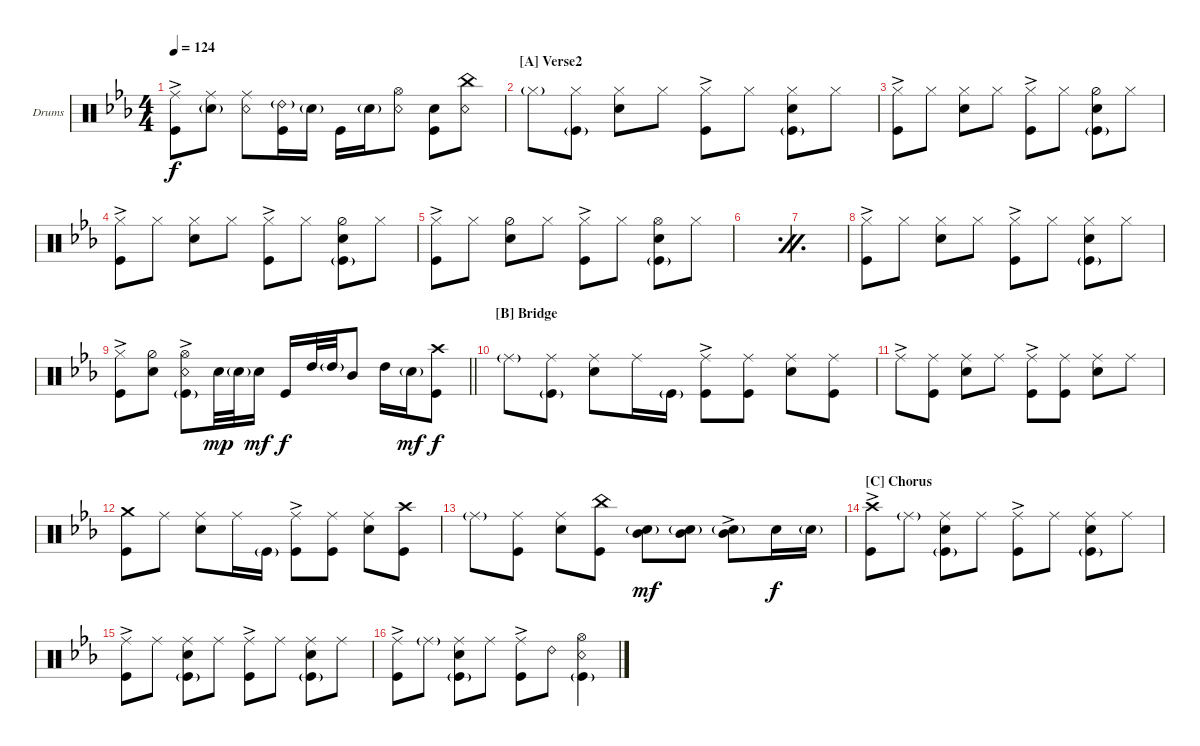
\bracketExtendMode groupsimilarinstruments
\firstSystemTrackNameOrientation horizontal
\otherSystemsTrackNameOrientation horizontal
\track ("Drumkit" "Drums") {instrument percussion}
\staff {score}
\articulation defaults
\ts (4 4)
\tempo 124
\clef neutral
\ks cminor
("Kick (hit)" "Ride (middle)"{ac}).8{dy f} ("Ride (middle)" "Snare (hit) 2"{g}).8 ("Snare (rim shot)" "Ride (middle)").8 ("Ride (bell) 2"{g} "Kick (hit)").16 "Snare (hit) 2"{g}.16 "Kick (hit)".16 "Snare (hit) 2"{g}.16 ("Snare (rim shot)" "Hi-Hat (open)").8 ("Snare (hit) 2" "Kick (hit)").8 ("China (hit)" "Snare (rim shot)").8 |
\section ("A" "Verse2")
"Hi-Hat (closed)"{g}.8 ("Hi-Hat (closed)" "Kick (hit)"{g}).8 ("Snare (hit) 2" "Hi-Hat (closed)").8 "Hi-Hat (closed)".8 ("Kick (hit)" "Hi-Hat (closed)"{ac}).8 "Hi-Hat (closed)".8 ("Snare (hit) 2" "Kick (hit)"{g} "Hi-Hat (closed)").8 "Hi-Hat (closed)".8 |
("Kick (hit)" "Hi-Hat (closed)"{ac}).8 "Hi-Hat (closed)".8 ("Snare (hit) 2" "Hi-Hat (closed)").8 "Hi-Hat (closed)".8 ("Kick (hit)" "Hi-Hat (closed)"{ac}).8 "Hi-Hat (closed)".8 ("Snare (hit) 2" "Kick (hit)"{g} "Hi-Hat (half)").8 "Hi-Hat (closed)".8 |
("Kick (hit)" "Hi-Hat (closed)"{ac}).8 "Hi-Hat (closed)".8 ("Snare (hit) 2" "Hi-Hat (closed)").8 "Hi-Hat (closed)".8 ("Kick (hit)" "Hi-Hat (closed)"{ac}).8 "Hi-Hat (closed)".8 ("Snare (hit) 2" "Kick (hit)"{g} "Hi-Hat (half)").8 "Hi-Hat (closed)".8 |
("Kick (hit)" "Hi-Hat (closed)"{ac}).8 "Hi-Hat (closed)".8 ("Snare (hit) 2" "Hi-Hat (half)").8 "Hi-Hat (closed)".8 ("Kick (hit)" "Hi-Hat (closed)"{ac}).8 "Hi-Hat (closed)".8 ("Snare (hit) 2" "Kick (hit)"{g} "Hi-Hat (open)").8 "Hi-Hat (closed)".8 |
\simile firstofdouble
|
\simile secondofdouble
|
\simile none
("Kick (hit)" "Hi-Hat (closed)"{ac}).8 "Hi-Hat (closed)".8 ("Snare (hit) 2" "Hi-Hat (closed)").8 "Hi-Hat (closed)".8 ("Kick (hit)" "Hi-Hat (closed)"{ac}).8 "Hi-Hat (closed)".8 ("Snare (hit) 2" "Kick (hit)"{g} "Hi-Hat (closed)").8 "Hi-Hat (closed)".8 |
\barLineRight lightlight
("Kick (hit)" "Hi-Hat (closed)"{ac}).8 ("Hi-Hat (half)" "Snare (hit) 2").8 ("Snare (rim shot)" "Hi-Hat (open)"{ac} "Kick (hit)"{g}).8 "Snare (hit) 2".32{dy mp} "Snare (hit) 2"{g}.32 "Snare (hit) 2".16{dy mf} "Kick (hit)".16{dy f} "High Tom (hit)".32 "High Tom (hit)"{g}.32 "Mid Tom (hit)".8 "High Tom (hit)".16 "Snare (hit) 2"{g}.16{dy mf} ("Kick (hit)" "Crash high (hit)").8{dy f} |
\section ("B" "Bridge")
"Ride (middle)"{g}.8 ("Ride (middle)" "Kick (hit)"{g}).8 ("Ride (middle)" "Snare (hit) 2").8 "Ride (middle)".16 "Kick (hit)"{g}.16 ("Kick (hit)" "Ride (middle)"{ac}).8 ("Ride (middle)" "Kick (hit)").8 ("Snare (hit) 2" "Ride (middle)").8 ("Ride (middle)" "Kick (hit)").8 |
"Ride (middle)"{ac}.8 ("Ride (middle)" "Kick (hit)").8 ("Snare (hit) 2" "Ride (middle)").8 "Ride (middle)".8 ("Kick (hit)" "Ride (middle)"{ac}).8 ("Ride (middle)" "Kick (hit)").8 ("Snare (hit) 2" "Ride (middle)").8 "Ride (middle)".8 |
("Kick (hit)" "Crash medium (hit)").8 "Ride (middle)".8 ("Ride (middle)" "Snare (hit) 2").8 "Ride (middle)".16 "Kick (hit)"{g}.16 ("Kick (hit)" "Ride (middle)"{ac}).8 ("Ride (middle)" "Kick (hit)").8 ("Snare (hit) 2" "Ride (middle)").8 ("Kick (hit)" "Crash high (hit)").8 |
"Ride (middle)"{g}.8 ("Ride (middle)" "Kick (hit)").8 ("Snare (hit) 2" "Ride (middle)").8 ("Kick (hit)" "China (hit)").8 ("Mid Tom (hit)" "Snare (hit) 2"{g}).8{dy mf} ("Mid Tom (hit)" "Snare (hit) 2"{g}).8 ("Snare (hit) 2"{g} "Mid Tom (hit)"{ac}).8 "Snare (hit) 2".16{dy f} "Snare (hit) 2"{g}.16 |
\section ("C" "Chorus")
("Kick (hit)" "Crash high (hit)"{ac}).8 "Ride (middle)"{g}.8 ("Snare (hit) 2" "Ride (middle)" "Kick (hit)"{g}).8 "Ride (middle)".8 ("Kick (hit)" "Ride (middle)"{ac}).8 "Ride (middle)".8 ("Snare (hit) 2" "Ride (middle)" "Kick (hit)"{g}).8 "Ride (middle)".8 |
("Kick (hit)" "Ride (middle)"{ac}).8 "Ride (middle)".8 ("Snare (hit) 2" "Ride (middle)" "Kick (hit)"{g}).8 "Ride (middle)".8 ("Kick (hit)" "Ride (middle)"{ac}).8 "Ride (middle)".8 ("Snare (hit) 2" "Ride (middle)" "Kick (hit)"{g}).8 "Ride (middle)".8 |
("Kick (hit)" "Ride (middle)"{ac}).8 "Ride (middle)"{g}.8 ("Snare (hit) 2" "Ride (middle)" "Kick (hit)"{g}).8 "Ride (middle)".8 ("Kick (hit)" "Ride (middle)"{ac}).8 "Ride (bell) 2".8 ("Snare (rim shot)" "Kick (hit)"{g} "Hi-Hat (open)").4
